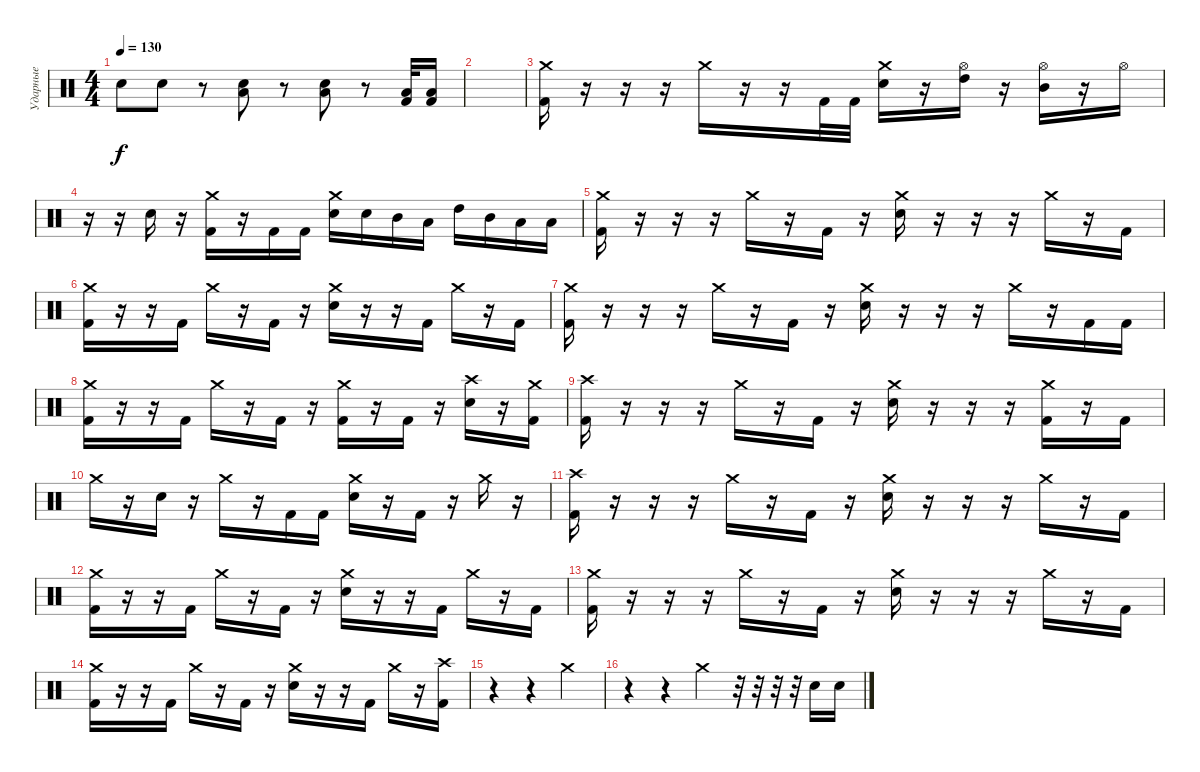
\track ("Ударные" "Ударные") {instrument percussion}
\staff {score}
\articulation defaults
\ts (4 4)
\tempo 130
\clef neutral
\ks c "Electric Snare (hit)".8{dy f} "Electric Snare (hit)".8
r.8 ("Low Tom (hit)" "Electric Snare (hit)").8 r.8 ("Low Tom (hit)" "Electric Snare (hit)").8 r.8 ("Low Tom (hit)" "Kick (hit) 2").32 ("Low Tom (hit)" "Kick (hit) 2").16 |
|
("Crash medium (hit)" "Kick (hit) 2").16 r.16 r.16 r.16 "Crash medium (hit)".16 r.16 r.16 "Kick (hit) 2".32 "Kick (hit) 2".32 ("Crash medium (hit)" "Electric Snare (hit)").16 r.16 ("Hi-Hat (open)" "High Tom (hit)").16 r.16 ("Hi-Hat (open)" "Mid Tom (hit)").16 r.16 "Hi-Hat (open)".16 |
r.16 r.16 "Electric Snare (hit)".16 r.16 ("Crash medium (hit)" "Kick (hit) 2").16 r.16 "Kick (hit) 2".16 "Kick (hit) 2".16 ("Crash medium (hit)" "Electric Snare (hit)").16 "Electric Snare (hit)".16 "Mid Tom (hit)".16 "Low Tom (hit)".16 "High Tom (hit)".16 "Mid Tom (hit)".16 "Low Tom (hit)".16 "Low Tom (hit)".16 |
("Crash medium (hit)" "Kick (hit) 2").16 r.16 r.16 r.16 "Crash medium (hit)".16 r.16 "Kick (hit) 2".16 r.16 ("Crash medium (hit)" "Electric Snare (hit)").16 r.16 r.16 r.16 "Crash medium (hit)".16 r.16 "Kick (hit) 2".16 |
("Crash medium (hit)" "Kick (hit) 2").16 r.16 r.16 "Kick (hit) 2".16 "Crash medium (hit)".16 r.16 "Kick (hit) 2".16 r.16 ("Crash medium (hit)" "Electric Snare (hit)").16 r.16 r.16 "Kick (hit) 2".16 "Crash medium (hit)".16 r.16 "Kick (hit) 2".16 |
("Crash medium (hit)" "Kick (hit) 2").16 r.16 r.16 r.16 "Crash medium (hit)".16 r.16 "Kick (hit) 2".16 r.16 ("Crash medium (hit)" "Electric Snare (hit)").16 r.16 r.16 r.16 "Crash medium (hit)".16 r.16 "Kick (hit) 2".16 "Kick (hit) 2".16 |
("Crash medium (hit)" "Kick (hit) 2").16 r.16 r.16 "Kick (hit) 2".16 "Crash medium (hit)".16 r.16 "Kick (hit) 2".16 r.16 ("Crash medium (hit)" "Kick (hit) 2").16 r.16 "Kick (hit) 2".16 r.16 ("Crash high (hit)" "Electric Snare (hit)").16 r.16 ("Crash medium (hit)" "Kick (hit) 2").16 |
("Crash high (hit)" "Kick (hit) 2").16 r.16 r.16 r.16 "Crash medium (hit)".16 r.16 "Kick (hit) 2".16 r.16 ("Crash medium (hit)" "Electric Snare (hit)").16 r.16 r.16 r.16 ("Crash medium (hit)" "Kick (hit) 2").16 r.16 "Kick (hit) 2".16 |
"Crash medium (hit)".16 r.16 "Electric Snare (hit)".16 r.16 "Crash medium (hit)".16 r.16 "Kick (hit) 2".16 "Kick (hit) 2".16 ("Crash medium (hit)" "Electric Snare (hit)").16 r.16 "Kick (hit) 2".16 r.16 "Crash medium (hit)".16 r.16 |
("Crash high (hit)" "Kick (hit) 2").16 r.16 r.16 r.16 "Crash medium (hit)".16 r.16 "Kick (hit) 2".16 r.16 ("Crash medium (hit)" "Electric Snare (hit)").16 r.16 r.16 r.16 "Crash medium (hit)".16 r.16 "Kick (hit) 2".16 |
("Crash medium (hit)" "Kick (hit) 2").16 r.16 r.16 "Kick (hit) 2".16 "Crash medium (hit)".16 r.16 "Kick (hit) 2".16 r.16 ("Crash medium (hit)" "Electric Snare (hit)").16 r.16 r.16 "Kick (hit) 2".16 "Crash medium (hit)".16 r.16 "Kick (hit) 2".16 |
("Crash medium (hit)" "Kick (hit) 2").16 r.16 r.16 r.16 "Crash medium (hit)".16 r.16 "Kick (hit) 2".16 r.16 ("Crash medium (hit)" "Electric Snare (hit)").16 r.16 r.16 r.16 "Crash medium (hit)".16 r.16 "Kick (hit) 2".16 |
("Crash medium (hit)" "Kick (hit) 2").16 r.16 r.16 "Kick (hit) 2".16 "Crash medium (hit)".16 r.16 "Kick (hit) 2".16 r.16 ("Crash medium (hit)" "Electric Snare (hit)").16 r.16 r.16 "Kick (hit) 2".16 "Crash medium (hit)".16 r.16 ("Crash high (hit)" "Kick (hit) 2").16 |
r.4 r.4 "Crash medium (hit)".4 |
r.4 r.4 "Crash medium (hit)".4 r.32 r.32 r.32 r.32 "Electric Snare (hit)".16 "Electric Snare (hit)".16
